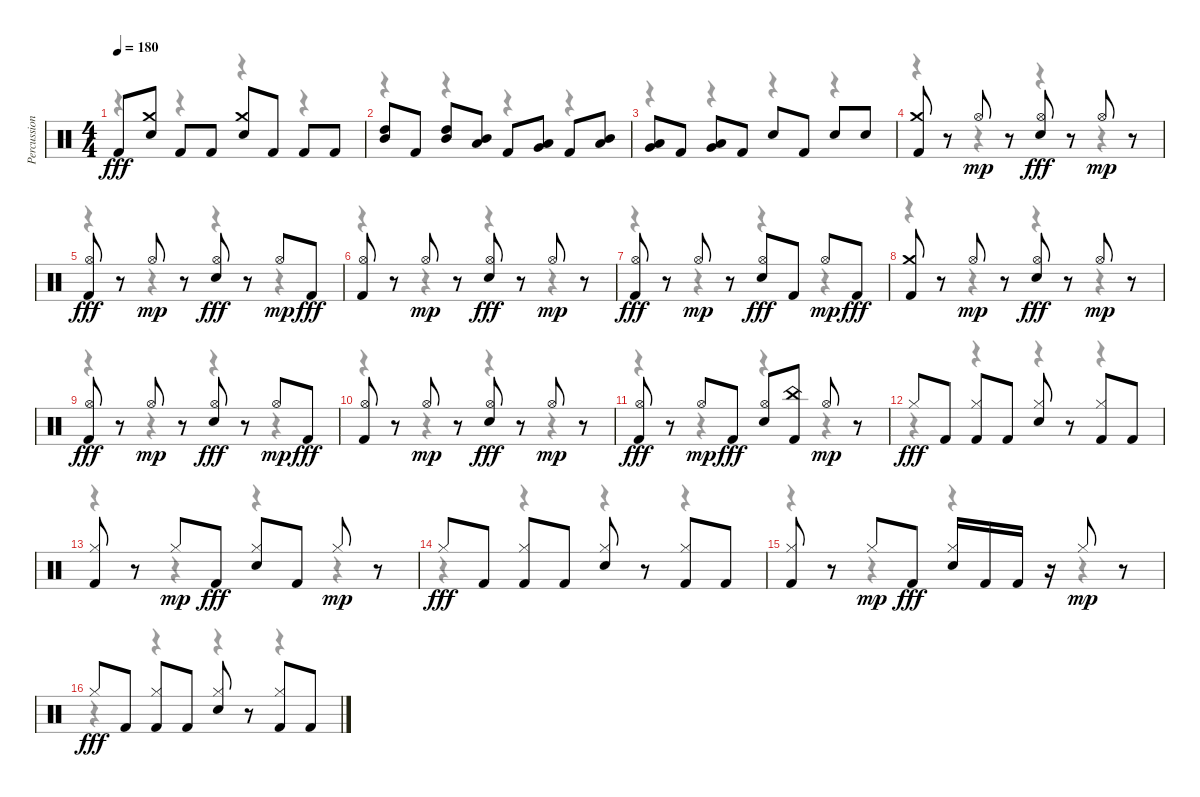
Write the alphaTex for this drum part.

\track ("Percussion" "Percussion") {instrument percussion}
\staff {score}
\articulation defaults
\voice
\ts (4 4)
\tempo 180
\clef neutral
\ks c "Kick (hit) 2".8{dy fff}
("Snare (hit) 2" "Crash medium (hit)").8 "Kick (hit) 2".8 "Kick (hit) 2".8 ("Snare (hit) 2" "Crash medium (hit)").8 "Kick (hit) 2".8 "Kick (hit) 2".8 "Kick (hit) 2".8 |
("Mid Tom (hit)" "High Tom (hit)").8 "Kick (hit) 2".8 ("Mid Tom (hit)" "High Tom (hit)").8 ("Low Tom (hit)" "Mid Tom (hit)").8 "Kick (hit) 2".8 ("Very Low Tom (hit)" "Low Tom (hit)").8 "Kick (hit) 2".8 ("Low Tom (hit)" "Mid Tom (hit)").8 |
("Very Low Tom (hit)" "Low Tom (hit)").8 "Kick (hit) 2".8 ("Low Floor Tom (hit)" "Very Low Tom (hit)").8 "Kick (hit) 2".8 "Snare (hit) 2".8 "Kick (hit) 2".8 "Snare (hit) 2".8 "Snare (hit) 2".8 |
("Kick (hit) 2" "Crash medium (hit)").8 r.8 "Hi-Hat (open)".8{dy mp} r.8 ("Hi-Hat (open)" "Snare (hit) 2").8{dy fff} r.8 "Hi-Hat (open)".8{dy mp} r.8 |
("Hi-Hat (open)" "Kick (hit) 2").8{dy fff} r.8 "Hi-Hat (open)".8{dy mp} r.8 ("Hi-Hat (open)" "Snare (hit) 2").8{dy fff} r.8 "Hi-Hat (open)".8{dy mp} "Kick (hit) 2".8{dy fff} |
("Hi-Hat (open)" "Kick (hit) 2").8 r.8 "Hi-Hat (open)".8{dy mp} r.8 ("Hi-Hat (open)" "Snare (hit) 2").8{dy fff} r.8 "Hi-Hat (open)".8{dy mp} r.8 |
("Hi-Hat (open)" "Kick (hit) 2").8{dy fff} r.8 "Hi-Hat (open)".8{dy mp} r.8 ("Hi-Hat (open)" "Snare (hit) 2").8{dy fff} "Kick (hit) 2".8 "Hi-Hat (open)".8{dy mp} "Kick (hit) 2".8{dy fff} |
("Kick (hit) 2" "Crash medium (hit)").8 r.8 "Hi-Hat (open)".8{dy mp} r.8 ("Hi-Hat (open)" "Snare (hit) 2").8{dy fff} r.8 "Hi-Hat (open)".8{dy mp} r.8 |
("Hi-Hat (open)" "Kick (hit) 2").8{dy fff} r.8 "Hi-Hat (open)".8{dy mp} r.8 ("Hi-Hat (open)" "Snare (hit) 2").8{dy fff} r.8 "Hi-Hat (open)".8{dy mp} "Kick (hit) 2".8{dy fff} |
("Hi-Hat (open)" "Kick (hit) 2").8 r.8 "Hi-Hat (open)".8{dy mp} r.8 ("Hi-Hat (open)" "Snare (hit) 2").8{dy fff} r.8 "Hi-Hat (open)".8{dy mp} r.8 |
("Hi-Hat (open)" "Kick (hit) 2").8{dy fff} r.8 "Hi-Hat (open)".8{dy mp} "Kick (hit) 2".8{dy fff} ("Hi-Hat (open)" "Snare (hit) 2").8 ("Kick (hit) 2" "China (hit)").8 "Hi-Hat (open)".8{dy mp} r.8 |
"Hi-Hat (closed)".8{dy fff} "Kick (hit) 2".8 ("Kick (hit) 2" "Hi-Hat (closed)").8 "Kick (hit) 2".8 ("Snare (hit) 2" "Hi-Hat (closed)").8 r.8 ("Kick (hit) 2" "Hi-Hat (closed)").8 "Kick (hit) 2".8 |
("Kick (hit) 2" "Hi-Hat (closed)").8 r.8 "Hi-Hat (closed)".8{dy mp} "Kick (hit) 2".8{dy fff} ("Snare (hit) 2" "Hi-Hat (closed)").8 "Kick (hit) 2".8 "Hi-Hat (closed)".8{dy mp} r.8 |
"Hi-Hat (closed)".8{dy fff} "Kick (hit) 2".8 ("Kick (hit) 2" "Hi-Hat (closed)").8 "Kick (hit) 2".8 ("Snare (hit) 2" "Hi-Hat (closed)").8 r.8 ("Kick (hit) 2" "Hi-Hat (closed)").8 "Kick (hit) 2".8 |
("Kick (hit) 2" "Hi-Hat (closed)").8 r.8 "Hi-Hat (closed)".8{dy mp} "Kick (hit) 2".8{dy fff} ("Snare (hit) 2" "Hi-Hat (closed)").16 "Kick (hit) 2".16 "Kick (hit) 2".16 r.16 "Hi-Hat (closed)".8{dy mp} r.8 |
"Hi-Hat (closed)".8{dy fff} "Kick (hit) 2".8 ("Kick (hit) 2" "Hi-Hat (closed)").8 "Kick (hit) 2".8 ("Snare (hit) 2" "Hi-Hat (closed)").8 r.8 ("Kick (hit) 2" "Hi-Hat (closed)").8 "Kick (hit) 2".8
\voice
\clef neutral
\ottava regular
\simile none
\ks c
r.4{dy f} r.4 r.4 r.4 |
r.4 r.4 r.4 r.4 |
r.4 r.4 r.4 r.4 |
r.4 r.4 r.4 r.4 |
r.4 r.4 r.4 r.4 |
r.4 r.4 r.4 r.4 |
r.4 r.4 r.4 r.4 |
r.4 r.4 r.4 r.4 |
r.4 r.4 r.4 r.4 |
r.4 r.4 r.4 r.4 |
r.4 r.4 r.4 r.4 |
r.4 r.4 r.4 r.4 |
r.4 r.4 r.4 r.4 |
r.4 r.4 r.4 r.4 |
r.4 r.4 r.4 r.4 |
r.4 r.4 r.4 r.4
